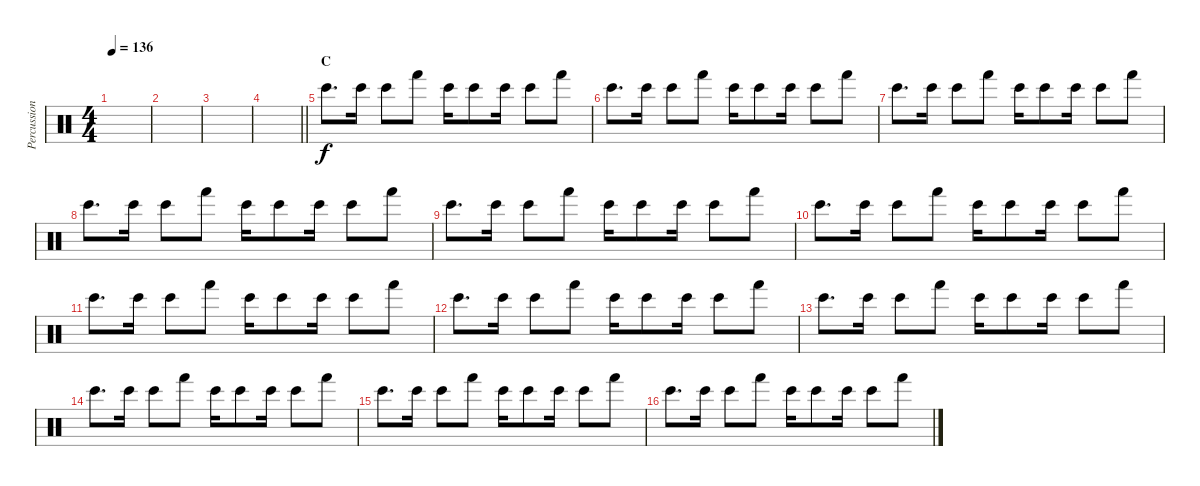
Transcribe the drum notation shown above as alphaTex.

\track ("Percussion" "Percussion") {instrument percussion}
\staff {score}
\articulation defaults
\ts (4 4)
\tempo 136
\clef neutral
\ks c
|
|
|
\barLineRight lightlight
|
\section ("" "C")
"Bongo High (hit)".8{d} "Bongo High (hit)".16 "Bongo High (hit)".8 "Hand (hit)".8 "Bongo High (hit)".16 "Bongo High (hit)".8 "Bongo High (hit)".16 "Bongo High (hit)".8 "Hand (hit)".8 |
"Bongo High (hit)".8{d} "Bongo High (hit)".16 "Bongo High (hit)".8 "Hand (hit)".8 "Bongo High (hit)".16 "Bongo High (hit)".8 "Bongo High (hit)".16 "Bongo High (hit)".8 "Hand (hit)".8 |
"Bongo High (hit)".8{d} "Bongo High (hit)".16 "Bongo High (hit)".8 "Hand (hit)".8 "Bongo High (hit)".16 "Bongo High (hit)".8 "Bongo High (hit)".16 "Bongo High (hit)".8 "Hand (hit)".8 |
"Bongo High (hit)".8{d} "Bongo High (hit)".16 "Bongo High (hit)".8 "Hand (hit)".8 "Bongo High (hit)".16 "Bongo High (hit)".8 "Bongo High (hit)".16 "Bongo High (hit)".8 "Hand (hit)".8 |
"Bongo High (hit)".8{d} "Bongo High (hit)".16 "Bongo High (hit)".8 "Hand (hit)".8 "Bongo High (hit)".16 "Bongo High (hit)".8 "Bongo High (hit)".16 "Bongo High (hit)".8 "Hand (hit)".8 |
"Bongo High (hit)".8{d} "Bongo High (hit)".16 "Bongo High (hit)".8 "Hand (hit)".8 "Bongo High (hit)".16 "Bongo High (hit)".8 "Bongo High (hit)".16 "Bongo High (hit)".8 "Hand (hit)".8 |
"Bongo High (hit)".8{d} "Bongo High (hit)".16 "Bongo High (hit)".8 "Hand (hit)".8 "Bongo High (hit)".16 "Bongo High (hit)".8 "Bongo High (hit)".16 "Bongo High (hit)".8 "Hand (hit)".8 |
"Bongo High (hit)".8{d} "Bongo High (hit)".16 "Bongo High (hit)".8 "Hand (hit)".8 "Bongo High (hit)".16 "Bongo High (hit)".8 "Bongo High (hit)".16 "Bongo High (hit)".8 "Hand (hit)".8 |
"Bongo High (hit)".8{d} "Bongo High (hit)".16 "Bongo High (hit)".8 "Hand (hit)".8 "Bongo High (hit)".16 "Bongo High (hit)".8 "Bongo High (hit)".16 "Bongo High (hit)".8 "Hand (hit)".8 |
"Bongo High (hit)".8{d} "Bongo High (hit)".16 "Bongo High (hit)".8 "Hand (hit)".8 "Bongo High (hit)".16 "Bongo High (hit)".8 "Bongo High (hit)".16 "Bongo High (hit)".8 "Hand (hit)".8 |
"Bongo High (hit)".8{d} "Bongo High (hit)".16 "Bongo High (hit)".8 "Hand (hit)".8 "Bongo High (hit)".16 "Bongo High (hit)".8 "Bongo High (hit)".16 "Bongo High (hit)".8 "Hand (hit)".8 |
"Bongo High (hit)".8{d} "Bongo High (hit)".16 "Bongo High (hit)".8 "Hand (hit)".8 "Bongo High (hit)".16 "Bongo High (hit)".8 "Bongo High (hit)".16 "Bongo High (hit)".8 "Hand (hit)".8
